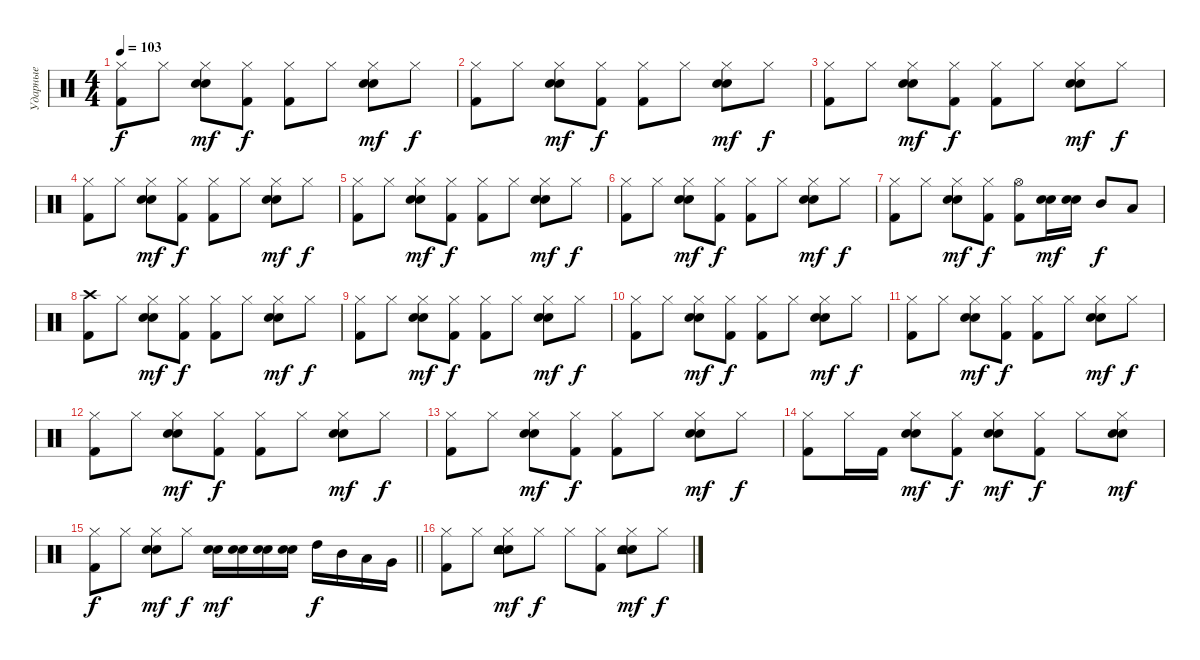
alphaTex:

\track ("Ударные" "Ударные") {instrument percussion}
\staff {score}
\articulation defaults
\ts (4 4)
\tempo 103
\clef neutral
\ks c
("Hi-Hat (closed)" "Kick (hit) 2").8{dy f} "Hi-Hat (closed)".8 ("Hi-Hat (closed)" "Electric Snare (hit)" "Snare (hit) 2").8{dy mf} ("Hi-Hat (closed)" "Kick (hit) 2").8{dy f} ("Hi-Hat (closed)" "Kick (hit) 2").8 "Hi-Hat (closed)".8 ("Hi-Hat (closed)" "Electric Snare (hit)" "Snare (hit) 2").8{dy mf} "Hi-Hat (closed)".8{dy f} |
("Hi-Hat (closed)" "Kick (hit) 2").8 "Hi-Hat (closed)".8 ("Hi-Hat (closed)" "Electric Snare (hit)" "Snare (hit) 2").8{dy mf} ("Hi-Hat (closed)" "Kick (hit) 2").8{dy f} ("Hi-Hat (closed)" "Kick (hit) 2").8 "Hi-Hat (closed)".8 ("Hi-Hat (closed)" "Electric Snare (hit)" "Snare (hit) 2").8{dy mf} "Hi-Hat (closed)".8{dy f} |
("Hi-Hat (closed)" "Kick (hit) 2").8 "Hi-Hat (closed)".8 ("Hi-Hat (closed)" "Electric Snare (hit)" "Snare (hit) 2").8{dy mf} ("Hi-Hat (closed)" "Kick (hit) 2").8{dy f} ("Hi-Hat (closed)" "Kick (hit) 2").8 "Hi-Hat (closed)".8 ("Hi-Hat (closed)" "Electric Snare (hit)" "Snare (hit) 2").8{dy mf} "Hi-Hat (closed)".8{dy f} |
("Hi-Hat (closed)" "Kick (hit) 2").8 "Hi-Hat (closed)".8 ("Hi-Hat (closed)" "Electric Snare (hit)" "Snare (hit) 2").8{dy mf} ("Hi-Hat (closed)" "Kick (hit) 2").8{dy f} ("Hi-Hat (closed)" "Kick (hit) 2").8 "Hi-Hat (closed)".8 ("Hi-Hat (closed)" "Electric Snare (hit)" "Snare (hit) 2").8{dy mf} "Hi-Hat (closed)".8{dy f} |
("Hi-Hat (closed)" "Kick (hit) 2").8 "Hi-Hat (closed)".8 ("Hi-Hat (closed)" "Electric Snare (hit)" "Snare (hit) 2").8{dy mf} ("Hi-Hat (closed)" "Kick (hit) 2").8{dy f} ("Hi-Hat (closed)" "Kick (hit) 2").8 "Hi-Hat (closed)".8 ("Hi-Hat (closed)" "Electric Snare (hit)" "Snare (hit) 2").8{dy mf} "Hi-Hat (closed)".8{dy f} |
("Hi-Hat (closed)" "Kick (hit) 2").8 "Hi-Hat (closed)".8 ("Hi-Hat (closed)" "Electric Snare (hit)" "Snare (hit) 2").8{dy mf} ("Hi-Hat (closed)" "Kick (hit) 2").8{dy f} ("Hi-Hat (closed)" "Kick (hit) 2").8 "Hi-Hat (closed)".8 ("Hi-Hat (closed)" "Electric Snare (hit)" "Snare (hit) 2").8{dy mf} "Hi-Hat (closed)".8{dy f} |
("Hi-Hat (closed)" "Kick (hit) 2").8 "Hi-Hat (closed)".8 ("Hi-Hat (closed)" "Electric Snare (hit)" "Snare (hit) 2").8{dy mf} ("Hi-Hat (closed)" "Kick (hit) 2").8{dy f} ("Hi-Hat (open)" "Kick (hit) 2").8 ("Electric Snare (hit)" "Snare (hit) 2").16{dy mf} ("Electric Snare (hit)" "Snare (hit) 2").16 "Mid Tom (hit)".8{dy f} "Low Tom (hit)".8 |
("Crash high (hit)" "Kick (hit) 2").8 "Hi-Hat (closed)".8 ("Hi-Hat (closed)" "Electric Snare (hit)" "Snare (hit) 2").8{dy mf} ("Hi-Hat (closed)" "Kick (hit) 2").8{dy f} ("Hi-Hat (closed)" "Kick (hit) 2").8 "Hi-Hat (closed)".8 ("Hi-Hat (closed)" "Electric Snare (hit)" "Snare (hit) 2").8{dy mf} "Hi-Hat (closed)".8{dy f} |
("Hi-Hat (closed)" "Kick (hit) 2").8 "Hi-Hat (closed)".8 ("Hi-Hat (closed)" "Electric Snare (hit)" "Snare (hit) 2").8{dy mf} ("Hi-Hat (closed)" "Kick (hit) 2").8{dy f} ("Hi-Hat (closed)" "Kick (hit) 2").8 "Hi-Hat (closed)".8 ("Hi-Hat (closed)" "Electric Snare (hit)" "Snare (hit) 2").8{dy mf} "Hi-Hat (closed)".8{dy f} |
("Hi-Hat (closed)" "Kick (hit) 2").8 "Hi-Hat (closed)".8 ("Hi-Hat (closed)" "Electric Snare (hit)" "Snare (hit) 2").8{dy mf} ("Hi-Hat (closed)" "Kick (hit) 2").8{dy f} ("Hi-Hat (closed)" "Kick (hit) 2").8 "Hi-Hat (closed)".8 ("Hi-Hat (closed)" "Electric Snare (hit)" "Snare (hit) 2").8{dy mf} "Hi-Hat (closed)".8{dy f} |
("Hi-Hat (closed)" "Kick (hit) 2").8 "Hi-Hat (closed)".8 ("Hi-Hat (closed)" "Electric Snare (hit)" "Snare (hit) 2").8{dy mf} ("Hi-Hat (closed)" "Kick (hit) 2").8{dy f} ("Hi-Hat (closed)" "Kick (hit) 2").8 "Hi-Hat (closed)".8 ("Hi-Hat (closed)" "Electric Snare (hit)" "Snare (hit) 2").8{dy mf} "Hi-Hat (closed)".8{dy f} |
("Hi-Hat (closed)" "Kick (hit) 2").8 "Hi-Hat (closed)".8 ("Hi-Hat (closed)" "Electric Snare (hit)" "Snare (hit) 2").8{dy mf} ("Hi-Hat (closed)" "Kick (hit) 2").8{dy f} ("Hi-Hat (closed)" "Kick (hit) 2").8 "Hi-Hat (closed)".8 ("Hi-Hat (closed)" "Electric Snare (hit)" "Snare (hit) 2").8{dy mf} "Hi-Hat (closed)".8{dy f} |
("Hi-Hat (closed)" "Kick (hit) 2").8 "Hi-Hat (closed)".8 ("Hi-Hat (closed)" "Electric Snare (hit)" "Snare (hit) 2").8{dy mf} ("Hi-Hat (closed)" "Kick (hit) 2").8{dy f} ("Hi-Hat (closed)" "Kick (hit) 2").8 "Hi-Hat (closed)".8 ("Hi-Hat (closed)" "Electric Snare (hit)" "Snare (hit) 2").8{dy mf} "Hi-Hat (closed)".8{dy f} |
("Hi-Hat (closed)" "Kick (hit) 2").8 "Hi-Hat (closed)".16 "Kick (hit) 2".16 ("Hi-Hat (closed)" "Electric Snare (hit)" "Snare (hit) 2").8{dy mf} ("Hi-Hat (closed)" "Kick (hit) 2").8{dy f} ("Hi-Hat (closed)" "Electric Snare (hit)" "Snare (hit) 2").8{dy mf} ("Hi-Hat (closed)" "Kick (hit) 2").8{dy f} "Hi-Hat (closed)".8 ("Hi-Hat (closed)" "Electric Snare (hit)" "Snare (hit) 2").8{dy mf} |
\barLineRight lightlight
("Hi-Hat (closed)" "Kick (hit) 2").8{dy f} "Hi-Hat (closed)".8 ("Hi-Hat (closed)" "Electric Snare (hit)" "Snare (hit) 2").8{dy mf} "Hi-Hat (closed)".8{dy f} ("Electric Snare (hit)" "Snare (hit) 2").16{dy mf} ("Electric Snare (hit)" "Snare (hit) 2").16 ("Electric Snare (hit)" "Snare (hit) 2").16 ("Electric Snare (hit)" "Snare (hit) 2").16 "High Tom (hit)".16{dy f} "Mid Tom (hit)".16 "Low Tom (hit)".16 "Very Low Tom (hit)".16 |
("Hi-Hat (closed)" "Kick (hit) 2").8 "Hi-Hat (closed)".8 ("Hi-Hat (closed)" "Electric Snare (hit)" "Snare (hit) 2" "Tambourine (hit)").8{dy mf} "Hi-Hat (closed)".8{dy f} "Hi-Hat (closed)".8 ("Hi-Hat (closed)" "Kick (hit) 2").8 ("Hi-Hat (closed)" "Electric Snare (hit)" "Snare (hit) 2" "Tambourine (hit)").8{dy mf} "Hi-Hat (closed)".8{dy f}
